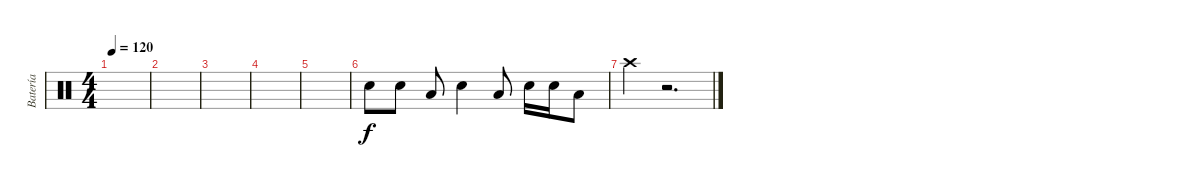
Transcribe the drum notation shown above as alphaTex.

\track ("Batería" "Batería") {instrument percussion}
\staff {score}
\articulation defaults
\ts (4 4)
\tempo 120
\clef neutral
\ks c
|
|
|
|
|
"Snare (hit) 2".8 "Snare (hit) 2".8 "Low Tom (hit)".8 "Snare (hit) 2".4 "Low Tom (hit)".8 "Snare (hit) 2".16 "Snare (hit) 2".16 "Low Tom (hit)".8 |
"Crash high (hit)".4 r.2{d}
